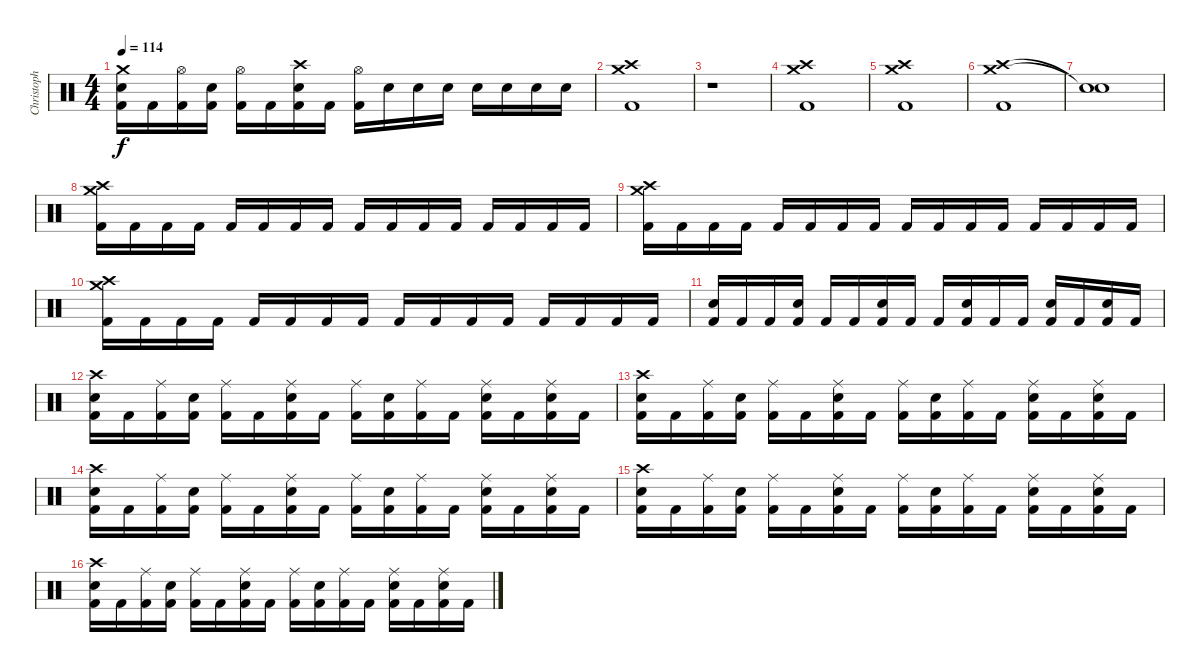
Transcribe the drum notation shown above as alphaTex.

\track ("Christoph Schneider [Drums]" "Christoph ") {instrument percussion}
\staff {score}
\articulation defaults
\ts (4 4)
\tempo 114
\clef neutral
\ks c
("Crash medium (hit)" "Electric Snare (hit)" "Kick (hit) 2").16{dy f} "Kick (hit) 2".16 ("Hi-Hat (open)" "Kick (hit) 2").16 ("Electric Snare (hit)" "Kick (hit) 2").16 ("Hi-Hat (open)" "Kick (hit) 2").16 "Kick (hit) 2".16 ("Crash high (hit)" "Electric Snare (hit)" "Kick (hit) 2").16 "Kick (hit) 2".16 ("Hi-Hat (open)" "Kick (hit) 2").16 "Electric Snare (hit)".16 "Electric Snare (hit)".16 "Electric Snare (hit)".16 "Electric Snare (hit)".16 "Electric Snare (hit)".16 "Electric Snare (hit)".16 "Electric Snare (hit)".16 |
("Crash high (hit)" "Crash medium (hit)" "Kick (hit) 2").1 |
r.1 |
("Crash high (hit)" "Crash medium (hit)" "Kick (hit) 2").1 |
("Crash high (hit)" "Crash medium (hit)" "Kick (hit) 2").1 |
("Crash high (hit)" "Crash medium (hit)" "Kick (hit) 2").1 |
("Snare (hit)"{t} "Snare (hit)"{t}).1 |
("Crash high (hit)" "Crash medium (hit)" "Kick (hit) 2").16 "Kick (hit) 2".16 "Kick (hit) 2".16 "Kick (hit) 2".16 "Kick (hit) 2".16 "Kick (hit) 2".16 "Kick (hit) 2".16 "Kick (hit) 2".16 "Kick (hit) 2".16 "Kick (hit) 2".16 "Kick (hit) 2".16 "Kick (hit) 2".16 "Kick (hit) 2".16 "Kick (hit) 2".16 "Kick (hit) 2".16 "Kick (hit) 2".16 |
("Crash high (hit)" "Crash medium (hit)" "Kick (hit) 2").16 "Kick (hit) 2".16 "Kick (hit) 2".16 "Kick (hit) 2".16 "Kick (hit) 2".16 "Kick (hit) 2".16 "Kick (hit) 2".16 "Kick (hit) 2".16 "Kick (hit) 2".16 "Kick (hit) 2".16 "Kick (hit) 2".16 "Kick (hit) 2".16 "Kick (hit) 2".16 "Kick (hit) 2".16 "Kick (hit) 2".16 "Kick (hit) 2".16 |
("Crash high (hit)" "Crash medium (hit)" "Kick (hit) 2").16 "Kick (hit) 2".16 "Kick (hit) 2".16 "Kick (hit) 2".16 "Kick (hit) 2".16 "Kick (hit) 2".16 "Kick (hit) 2".16 "Kick (hit) 2".16 "Kick (hit) 2".16 "Kick (hit) 2".16 "Kick (hit) 2".16 "Kick (hit) 2".16 "Kick (hit) 2".16 "Kick (hit) 2".16 "Kick (hit) 2".16 "Kick (hit) 2".16 |
("Electric Snare (hit)" "Kick (hit) 2").16 "Kick (hit) 2".16 "Kick (hit) 2".16 ("Electric Snare (hit)" "Kick (hit) 2").16 "Kick (hit) 2".16 "Kick (hit) 2".16 ("Electric Snare (hit)" "Kick (hit) 2").16 "Kick (hit) 2".16 "Kick (hit) 2".16 ("Electric Snare (hit)" "Kick (hit) 2").16 "Kick (hit) 2".16 "Kick (hit) 2".16 ("Electric Snare (hit)" "Kick (hit) 2").16 "Kick (hit) 2".16 ("Electric Snare (hit)" "Kick (hit) 2").16 "Kick (hit) 2".16 |
("Crash high (hit)" "Electric Snare (hit)" "Kick (hit) 2").16 "Kick (hit) 2".16 ("Ride (middle)" "Kick (hit) 2").16 ("Electric Snare (hit)" "Kick (hit) 2").16 ("Ride (middle)" "Kick (hit) 2").16 "Kick (hit) 2".16 ("Ride (middle)" "Electric Snare (hit)" "Kick (hit) 2").16 "Kick (hit) 2".16 ("Ride (middle)" "Kick (hit) 2").16 ("Electric Snare (hit)" "Kick (hit) 2").16 ("Ride (middle)" "Kick (hit) 2").16 "Kick (hit) 2".16 ("Ride (middle)" "Electric Snare (hit)" "Kick (hit) 2").16 "Kick (hit) 2".16 ("Ride (middle)" "Electric Snare (hit)" "Kick (hit) 2").16 "Kick (hit) 2".16 |
("Crash high (hit)" "Electric Snare (hit)" "Kick (hit) 2").16 "Kick (hit) 2".16 ("Ride (middle)" "Kick (hit) 2").16 ("Electric Snare (hit)" "Kick (hit) 2").16 ("Ride (middle)" "Kick (hit) 2").16 "Kick (hit) 2".16 ("Ride (middle)" "Electric Snare (hit)" "Kick (hit) 2").16 "Kick (hit) 2".16 ("Ride (middle)" "Kick (hit) 2").16 ("Electric Snare (hit)" "Kick (hit) 2").16 ("Ride (middle)" "Kick (hit) 2").16 "Kick (hit) 2".16 ("Ride (middle)" "Electric Snare (hit)" "Kick (hit) 2").16 "Kick (hit) 2".16 ("Ride (middle)" "Electric Snare (hit)" "Kick (hit) 2").16 "Kick (hit) 2".16 |
("Crash high (hit)" "Electric Snare (hit)" "Kick (hit) 2").16 "Kick (hit) 2".16 ("Ride (middle)" "Kick (hit) 2").16 ("Electric Snare (hit)" "Kick (hit) 2").16 ("Ride (middle)" "Kick (hit) 2").16 "Kick (hit) 2".16 ("Ride (middle)" "Electric Snare (hit)" "Kick (hit) 2").16 "Kick (hit) 2".16 ("Ride (middle)" "Kick (hit) 2").16 ("Electric Snare (hit)" "Kick (hit) 2").16 ("Ride (middle)" "Kick (hit) 2").16 "Kick (hit) 2".16 ("Ride (middle)" "Electric Snare (hit)" "Kick (hit) 2").16 "Kick (hit) 2".16 ("Ride (middle)" "Electric Snare (hit)" "Kick (hit) 2").16 "Kick (hit) 2".16 |
("Crash high (hit)" "Electric Snare (hit)" "Kick (hit) 2").16 "Kick (hit) 2".16 ("Ride (middle)" "Kick (hit) 2").16 ("Electric Snare (hit)" "Kick (hit) 2").16 ("Ride (middle)" "Kick (hit) 2").16 "Kick (hit) 2".16 ("Ride (middle)" "Electric Snare (hit)" "Kick (hit) 2").16 "Kick (hit) 2".16 ("Ride (middle)" "Kick (hit) 2").16 ("Electric Snare (hit)" "Kick (hit) 2").16 ("Ride (middle)" "Kick (hit) 2").16 "Kick (hit) 2".16 ("Ride (middle)" "Electric Snare (hit)" "Kick (hit) 2").16 "Kick (hit) 2".16 ("Ride (middle)" "Electric Snare (hit)" "Kick (hit) 2").16 "Kick (hit) 2".16 |
("Crash high (hit)" "Electric Snare (hit)" "Kick (hit) 2").16 "Kick (hit) 2".16 ("Ride (middle)" "Kick (hit) 2").16 ("Electric Snare (hit)" "Kick (hit) 2").16 ("Ride (middle)" "Kick (hit) 2").16 "Kick (hit) 2".16 ("Ride (middle)" "Electric Snare (hit)" "Kick (hit) 2").16 "Kick (hit) 2".16 ("Ride (middle)" "Kick (hit) 2").16 ("Electric Snare (hit)" "Kick (hit) 2").16 ("Ride (middle)" "Kick (hit) 2").16 "Kick (hit) 2".16 ("Ride (middle)" "Electric Snare (hit)" "Kick (hit) 2").16 "Kick (hit) 2".16 ("Ride (middle)" "Electric Snare (hit)" "Kick (hit) 2").16 "Kick (hit) 2".16
